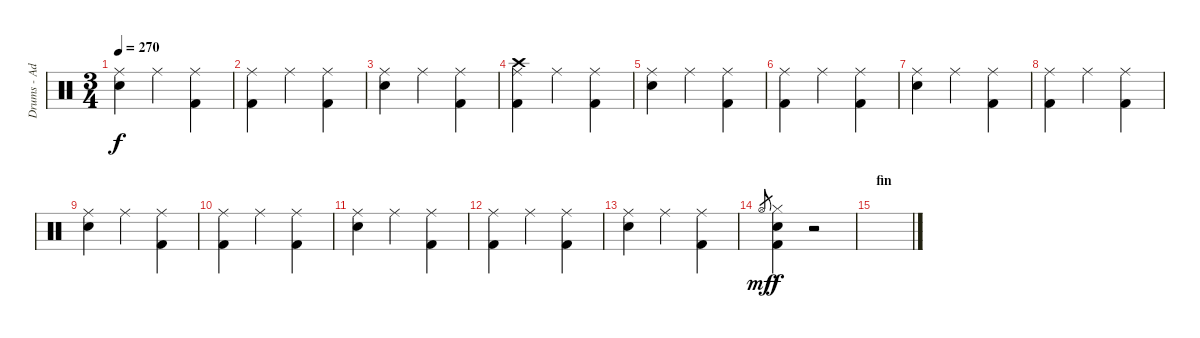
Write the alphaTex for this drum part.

\track ("Drums - Adam" "Drums - Ad") {instrument percussion}
\staff {score}
\articulation defaults
\ts (3 4)
\tempo 270
\clef neutral
\ks c
("Ride (middle)" "Electric Snare (hit)").4{dy f} "Ride (middle)".4 ("Ride (middle)" "Kick (hit) 2").4 |
("Ride (middle)" "Kick (hit) 2").4 "Ride (middle)".4 ("Ride (middle)" "Kick (hit) 2").4 |
("Ride (middle)" "Electric Snare (hit)").4 "Ride (middle)".4 ("Ride (middle)" "Kick (hit) 2").4 |
("Ride (middle)" "Kick (hit) 2" "Crash high (hit)").4 "Ride (middle)".4 ("Ride (middle)" "Kick (hit) 2").4 |
("Ride (middle)" "Electric Snare (hit)").4 "Ride (middle)".4 ("Ride (middle)" "Kick (hit) 2").4 |
("Ride (middle)" "Kick (hit) 2").4 "Ride (middle)".4 ("Ride (middle)" "Kick (hit) 2").4 |
("Ride (middle)" "Electric Snare (hit)").4 "Ride (middle)".4 ("Ride (middle)" "Kick (hit) 2").4 |
("Ride (middle)" "Kick (hit) 2").4 "Ride (middle)".4 ("Ride (middle)" "Kick (hit) 2").4 |
("Ride (middle)" "Electric Snare (hit)").4 "Ride (middle)".4 ("Ride (middle)" "Kick (hit) 2").4 |
("Ride (middle)" "Kick (hit) 2").4 "Ride (middle)".4 ("Ride (middle)" "Kick (hit) 2").4 |
("Ride (middle)" "Electric Snare (hit)").4 "Ride (middle)".4 ("Ride (middle)" "Kick (hit) 2").4 |
("Ride (middle)" "Kick (hit) 2").4 "Ride (middle)".4 ("Ride (middle)" "Kick (hit) 2").4 |
("Ride (middle)" "Electric Snare (hit)").4 "Ride (middle)".4 ("Ride (middle)" "Kick (hit) 2").4 |
"Hi-Hat (open)".8{gr dy mf} ("Hi-Hat (closed)" "Kick (hit) 2" "Electric Snare (hit)").4{dy f} r.2 |
\section ("" "fin")
